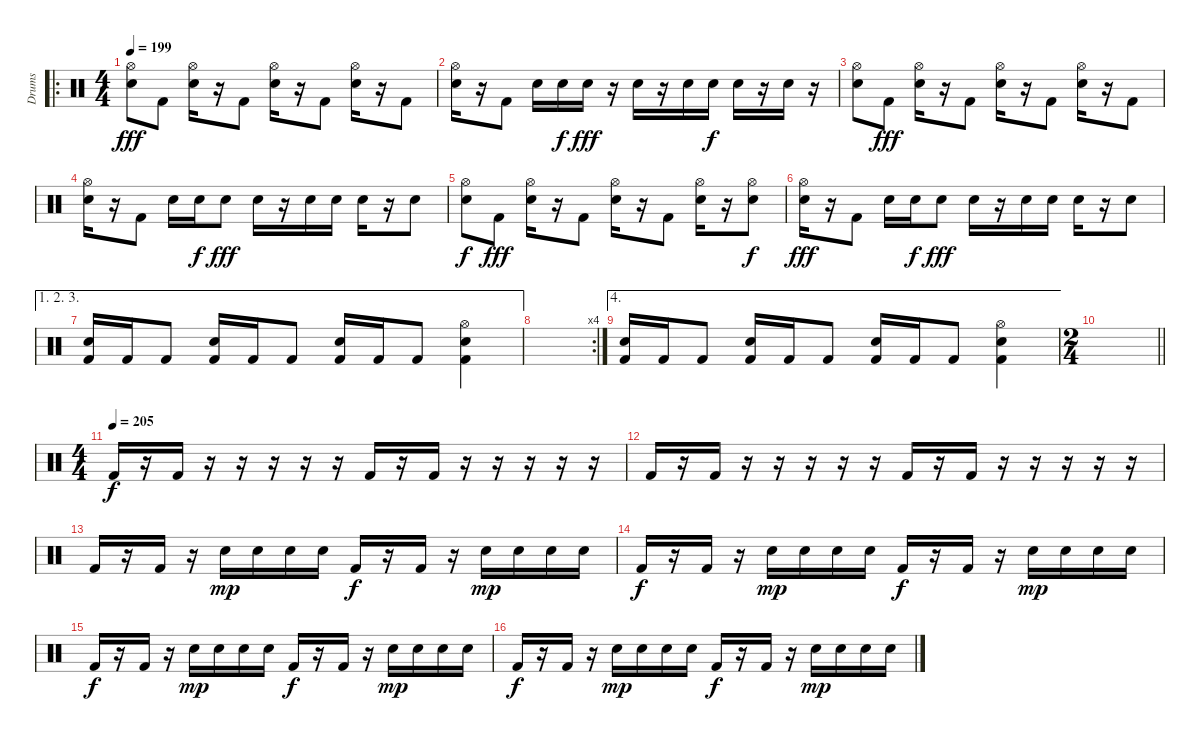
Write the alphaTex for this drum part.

\track ("Drums" "Drums") {instrument percussion}
\staff {score}
\articulation defaults
\ro
\ts (4 4)
\tempo 199
\clef neutral
\ks c
("Hi-Hat (open)" "Snare (hit) 2").8{dy fff} "Kick (hit) 2".8 ("Hi-Hat (open)" "Snare (hit) 2").16 r.16 "Kick (hit) 2".8 ("Hi-Hat (open)" "Snare (hit) 2").16 r.16 "Kick (hit) 2".8 ("Hi-Hat (open)" "Snare (hit) 2").16 r.16 "Kick (hit) 2".8 |
("Hi-Hat (open)" "Snare (hit) 2").16 r.16 "Kick (hit) 2".8 "Snare (hit) 2".16 "Snare (hit) 2".16{dy f} "Snare (hit) 2".16{dy fff} r.16 "Snare (hit) 2".16 r.16 "Snare (hit) 2".16 "Snare (hit) 2".16{dy f} "Snare (hit) 2".16 r.16 "Snare (hit) 2".16 r.16 |
("Hi-Hat (open)" "Snare (hit) 2").8 "Kick (hit) 2".8{dy fff} ("Hi-Hat (open)" "Snare (hit) 2").16 r.16 "Kick (hit) 2".8 ("Hi-Hat (open)" "Snare (hit) 2").16 r.16 "Kick (hit) 2".8 ("Hi-Hat (open)" "Snare (hit) 2").16 r.16 "Kick (hit) 2".8 |
("Hi-Hat (open)" "Snare (hit) 2").16 r.16 "Kick (hit) 2".8 "Snare (hit) 2".16 "Snare (hit) 2".16{dy f} "Snare (hit) 2".8{dy fff} "Snare (hit) 2".16 r.16 "Snare (hit) 2".16 "Snare (hit) 2".16 "Snare (hit) 2".16 r.16 "Snare (hit) 2".8 |
("Hi-Hat (open)" "Snare (hit) 2").8{dy f} "Kick (hit) 2".8{dy fff} ("Hi-Hat (open)" "Snare (hit) 2").16 r.16 "Kick (hit) 2".8 ("Hi-Hat (open)" "Snare (hit) 2").16 r.16 "Kick (hit) 2".8 ("Hi-Hat (open)" "Snare (hit) 2").16 r.16 ("Hi-Hat (open)" "Snare (hit) 2").8{dy f} |
("Hi-Hat (open)" "Snare (hit) 2").16{dy fff} r.16 "Kick (hit) 2".8 "Snare (hit) 2".16 "Snare (hit) 2".16{dy f} "Snare (hit) 2".8{dy fff} "Snare (hit) 2".16 r.16 "Snare (hit) 2".16 "Snare (hit) 2".16 "Snare (hit) 2".16 r.16 "Snare (hit) 2".8 |
\ae (1 2 3)
("Snare (hit) 2" "Kick (hit) 2").16 "Kick (hit) 2".16 "Kick (hit) 2".8 ("Snare (hit) 2" "Kick (hit) 2").16 "Kick (hit) 2".16 "Kick (hit) 2".8 ("Snare (hit) 2" "Kick (hit) 2").16 "Kick (hit) 2".16 "Kick (hit) 2".8 ("Hi-Hat (open)" "Snare (hit) 2" "Kick (hit) 2").4 |
\rc 4
|
\ae 4
("Snare (hit) 2" "Kick (hit) 2").16 "Kick (hit) 2".16 "Kick (hit) 2".8 ("Snare (hit) 2" "Kick (hit) 2").16 "Kick (hit) 2".16 "Kick (hit) 2".8 ("Snare (hit) 2" "Kick (hit) 2").16 "Kick (hit) 2".16 "Kick (hit) 2".8 ("Hi-Hat (open)" "Snare (hit) 2" "Kick (hit) 2").4 |
\ts (2 4)
\barLineRight lightlight
|
\ts (4 4)
\tempo (205)
"Kick (hit) 2".16{dy f} r.16 "Kick (hit) 2".16 r.16 r.16 r.16 r.16 r.16 "Kick (hit) 2".16 r.16 "Kick (hit) 2".16 r.16 r.16 r.16 r.16 r.16 |
"Kick (hit) 2".16 r.16 "Kick (hit) 2".16 r.16 r.16 r.16 r.16 r.16 "Kick (hit) 2".16 r.16 "Kick (hit) 2".16 r.16 r.16 r.16 r.16 r.16 |
"Kick (hit) 2".16 r.16 "Kick (hit) 2".16 r.16 "Snare (hit) 2".16{dy mp} "Snare (hit) 2".16 "Snare (hit) 2".16 "Snare (hit) 2".16 "Kick (hit) 2".16{dy f} r.16 "Kick (hit) 2".16 r.16 "Snare (hit) 2".16{dy mp} "Snare (hit) 2".16 "Snare (hit) 2".16 "Snare (hit) 2".16 |
"Kick (hit) 2".16{dy f} r.16 "Kick (hit) 2".16 r.16 "Snare (hit) 2".16{dy mp} "Snare (hit) 2".16 "Snare (hit) 2".16 "Snare (hit) 2".16 "Kick (hit) 2".16{dy f} r.16 "Kick (hit) 2".16 r.16 "Snare (hit) 2".16{dy mp} "Snare (hit) 2".16 "Snare (hit) 2".16 "Snare (hit) 2".16 |
"Kick (hit) 2".16{dy f} r.16 "Kick (hit) 2".16 r.16 "Snare (hit) 2".16{dy mp} "Snare (hit) 2".16 "Snare (hit) 2".16 "Snare (hit) 2".16 "Kick (hit) 2".16{dy f} r.16 "Kick (hit) 2".16 r.16 "Snare (hit) 2".16{dy mp} "Snare (hit) 2".16 "Snare (hit) 2".16 "Snare (hit) 2".16 |
"Kick (hit) 2".16{dy f} r.16 "Kick (hit) 2".16 r.16 "Snare (hit) 2".16{dy mp} "Snare (hit) 2".16 "Snare (hit) 2".16 "Snare (hit) 2".16 "Kick (hit) 2".16{dy f} r.16 "Kick (hit) 2".16 r.16 "Snare (hit) 2".16{dy mp} "Snare (hit) 2".16 "Snare (hit) 2".16 "Snare (hit) 2".16
